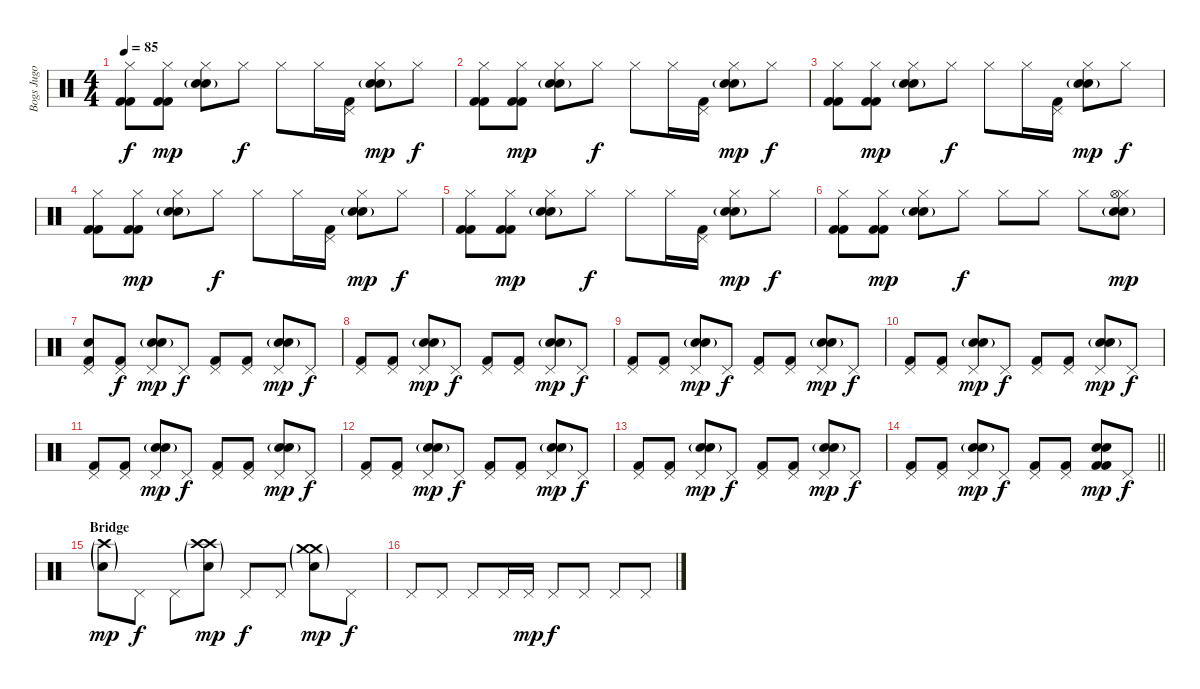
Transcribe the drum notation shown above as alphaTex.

\track ("Bogs Jugo" "Bogs Jugo") {instrument percussion}
\staff {score}
\articulation defaults
\ts (4 4)
\tempo 85
\clef neutral
\ks c
("Hi-Hat (closed)" "Kick (hit) 2" "Kick (hit) 2").8{dy f} ("Hi-Hat (closed)" "Kick (hit) 2" "Kick (hit) 2").8{dy mp} ("Hi-Hat (closed)" "Electric Snare (hit)" "Snare (hit) 2"{g}).8 "Hi-Hat (closed)".8{dy f} "Hi-Hat (closed)".8 "Hi-Hat (closed)".16 ("Pedal Hi-Hat (hit)" "Kick (hit) 2").16 ("Hi-Hat (closed)" "Electric Snare (hit)" "Snare (hit) 2"{g}).8{dy mp} "Hi-Hat (closed)".8{dy f} |
("Hi-Hat (closed)" "Kick (hit) 2" "Kick (hit) 2").8 ("Hi-Hat (closed)" "Kick (hit) 2" "Kick (hit) 2").8{dy mp} ("Hi-Hat (closed)" "Electric Snare (hit)" "Snare (hit) 2"{g}).8 "Hi-Hat (closed)".8{dy f} "Hi-Hat (closed)".8 "Hi-Hat (closed)".16 ("Pedal Hi-Hat (hit)" "Kick (hit) 2").16 ("Hi-Hat (closed)" "Electric Snare (hit)" "Snare (hit) 2"{g}).8{dy mp} "Hi-Hat (closed)".8{dy f} |
("Hi-Hat (closed)" "Kick (hit) 2" "Kick (hit) 2").8 ("Hi-Hat (closed)" "Kick (hit) 2" "Kick (hit) 2").8{dy mp} ("Hi-Hat (closed)" "Electric Snare (hit)" "Snare (hit) 2"{g}).8 "Hi-Hat (closed)".8{dy f} "Hi-Hat (closed)".8 "Hi-Hat (closed)".16 ("Pedal Hi-Hat (hit)" "Kick (hit) 2").16 ("Hi-Hat (closed)" "Electric Snare (hit)" "Snare (hit) 2"{g}).8{dy mp} "Hi-Hat (closed)".8{dy f} |
("Hi-Hat (closed)" "Kick (hit) 2" "Kick (hit) 2").8 ("Hi-Hat (closed)" "Kick (hit) 2" "Kick (hit) 2").8{dy mp} ("Hi-Hat (closed)" "Electric Snare (hit)" "Snare (hit) 2"{g}).8 "Hi-Hat (closed)".8{dy f} "Hi-Hat (closed)".8 "Hi-Hat (closed)".16 ("Pedal Hi-Hat (hit)" "Kick (hit) 2").16 ("Hi-Hat (closed)" "Electric Snare (hit)" "Snare (hit) 2"{g}).8{dy mp} "Hi-Hat (closed)".8{dy f} |
("Hi-Hat (closed)" "Kick (hit) 2" "Kick (hit) 2").8 ("Hi-Hat (closed)" "Kick (hit) 2" "Kick (hit) 2").8{dy mp} ("Hi-Hat (closed)" "Electric Snare (hit)" "Snare (hit) 2"{g}).8 "Hi-Hat (closed)".8{dy f} "Hi-Hat (closed)".8 "Hi-Hat (closed)".16 ("Pedal Hi-Hat (hit)" "Kick (hit) 2").16 ("Hi-Hat (closed)" "Electric Snare (hit)" "Snare (hit) 2"{g}).8{dy mp} "Hi-Hat (closed)".8{dy f} |
("Hi-Hat (closed)" "Kick (hit) 2" "Kick (hit) 2").8 ("Hi-Hat (closed)" "Kick (hit) 2" "Kick (hit) 2").8{dy mp} ("Hi-Hat (closed)" "Electric Snare (hit)" "Snare (hit) 2"{g}).8 "Hi-Hat (closed)".8{dy f} "Hi-Hat (closed)".8 "Hi-Hat (closed)".8 "Hi-Hat (closed)".8 ("Hi-Hat (closed)" "Electric Snare (hit)" "Snare (hit) 2"{g} "Hi-Hat (open)").8{dy mp} |
("Pedal Hi-Hat (hit)" "Electric Snare (hit)" "Kick (hit) 2").8 ("Pedal Hi-Hat (hit)" "Kick (hit) 2").8{dy f} ("Pedal Hi-Hat (hit)" "Electric Snare (hit)" "Snare (hit) 2"{g}).8{dy mp} "Pedal Hi-Hat (hit)".8{dy f} ("Pedal Hi-Hat (hit)" "Kick (hit) 2").8 ("Pedal Hi-Hat (hit)" "Kick (hit) 2").8 ("Pedal Hi-Hat (hit)" "Electric Snare (hit)" "Snare (hit) 2"{g}).8{dy mp} "Pedal Hi-Hat (hit)".8{dy f} |
("Pedal Hi-Hat (hit)" "Kick (hit) 2").8 ("Pedal Hi-Hat (hit)" "Kick (hit) 2").8 ("Pedal Hi-Hat (hit)" "Electric Snare (hit)" "Snare (hit) 2"{g}).8{dy mp} "Pedal Hi-Hat (hit)".8{dy f} ("Pedal Hi-Hat (hit)" "Kick (hit) 2").8 ("Pedal Hi-Hat (hit)" "Kick (hit) 2").8 ("Pedal Hi-Hat (hit)" "Electric Snare (hit)" "Snare (hit) 2"{g}).8{dy mp} "Pedal Hi-Hat (hit)".8{dy f} |
("Pedal Hi-Hat (hit)" "Kick (hit) 2").8 ("Pedal Hi-Hat (hit)" "Kick (hit) 2").8 ("Pedal Hi-Hat (hit)" "Electric Snare (hit)" "Snare (hit) 2"{g}).8{dy mp} "Pedal Hi-Hat (hit)".8{dy f} ("Pedal Hi-Hat (hit)" "Kick (hit) 2").8 ("Pedal Hi-Hat (hit)" "Kick (hit) 2").8 ("Pedal Hi-Hat (hit)" "Electric Snare (hit)" "Snare (hit) 2"{g}).8{dy mp} "Pedal Hi-Hat (hit)".8{dy f} |
("Pedal Hi-Hat (hit)" "Kick (hit) 2").8 ("Pedal Hi-Hat (hit)" "Kick (hit) 2").8 ("Pedal Hi-Hat (hit)" "Electric Snare (hit)" "Snare (hit) 2"{g}).8{dy mp} "Pedal Hi-Hat (hit)".8{dy f} ("Pedal Hi-Hat (hit)" "Kick (hit) 2").8 ("Pedal Hi-Hat (hit)" "Kick (hit) 2").8 ("Pedal Hi-Hat (hit)" "Electric Snare (hit)" "Snare (hit) 2"{g}).8{dy mp} "Pedal Hi-Hat (hit)".8{dy f} |
("Pedal Hi-Hat (hit)" "Kick (hit) 2").8 ("Pedal Hi-Hat (hit)" "Kick (hit) 2").8 ("Pedal Hi-Hat (hit)" "Electric Snare (hit)" "Snare (hit) 2"{g}).8{dy mp} "Pedal Hi-Hat (hit)".8{dy f} ("Pedal Hi-Hat (hit)" "Kick (hit) 2").8 ("Pedal Hi-Hat (hit)" "Kick (hit) 2").8 ("Pedal Hi-Hat (hit)" "Electric Snare (hit)" "Snare (hit) 2"{g}).8{dy mp} "Pedal Hi-Hat (hit)".8{dy f} |
("Pedal Hi-Hat (hit)" "Kick (hit) 2").8 ("Pedal Hi-Hat (hit)" "Kick (hit) 2").8 ("Pedal Hi-Hat (hit)" "Electric Snare (hit)" "Snare (hit) 2"{g}).8{dy mp} "Pedal Hi-Hat (hit)".8{dy f} ("Pedal Hi-Hat (hit)" "Kick (hit) 2").8 ("Pedal Hi-Hat (hit)" "Kick (hit) 2").8 ("Pedal Hi-Hat (hit)" "Electric Snare (hit)" "Snare (hit) 2"{g}).8{dy mp} "Pedal Hi-Hat (hit)".8{dy f} |
("Pedal Hi-Hat (hit)" "Kick (hit) 2").8 ("Pedal Hi-Hat (hit)" "Kick (hit) 2").8 ("Pedal Hi-Hat (hit)" "Electric Snare (hit)" "Snare (hit) 2"{g}).8{dy mp} "Pedal Hi-Hat (hit)".8{dy f} ("Pedal Hi-Hat (hit)" "Kick (hit) 2").8 ("Pedal Hi-Hat (hit)" "Kick (hit) 2").8 ("Pedal Hi-Hat (hit)" "Electric Snare (hit)" "Snare (hit) 2"{g}).8{dy mp} "Pedal Hi-Hat (hit)".8{dy f} |
\barLineRight lightlight
("Pedal Hi-Hat (hit)" "Kick (hit) 2").8 ("Pedal Hi-Hat (hit)" "Kick (hit) 2").8 ("Pedal Hi-Hat (hit)" "Electric Snare (hit)" "Snare (hit) 2"{g}).8{dy mp} "Pedal Hi-Hat (hit)".8{dy f} ("Pedal Hi-Hat (hit)" "Kick (hit) 2").8 ("Pedal Hi-Hat (hit)" "Kick (hit) 2").8 ("Kick (hit) 2" "Kick (hit) 2" "Electric Snare (hit)" "Electric Snare (hit)").8{dy mp} "Pedal Hi-Hat (hit)".8{dy f} |
\section ("" "Bridge")
("Crash high (hit)"{g} "Electric Snare (hit)"{g}).8{dy mp} "Pedal Hi-Hat (hit)".8{dy f} "Pedal Hi-Hat (hit)".8 ("Crash high (hit)"{g} "Electric Snare (hit)"{g} "Crash high (hit)"{g}).8{dy mp} "Pedal Hi-Hat (hit)".8{dy f} "Pedal Hi-Hat (hit)".8 ("Crash medium (hit)"{g} "Electric Snare (hit)"{g} "Crash medium (hit)"{g}).8{dy mp} "Pedal Hi-Hat (hit)".8{dy f} |
"Pedal Hi-Hat (hit)".8 "Pedal Hi-Hat (hit)".8 "Pedal Hi-Hat (hit)".8 "Pedal Hi-Hat (hit)".16 "Pedal Hi-Hat (hit)".16{dy mp} "Pedal Hi-Hat (hit)".8{dy f} "Pedal Hi-Hat (hit)".8 "Pedal Hi-Hat (hit)".8 "Pedal Hi-Hat (hit)".8
